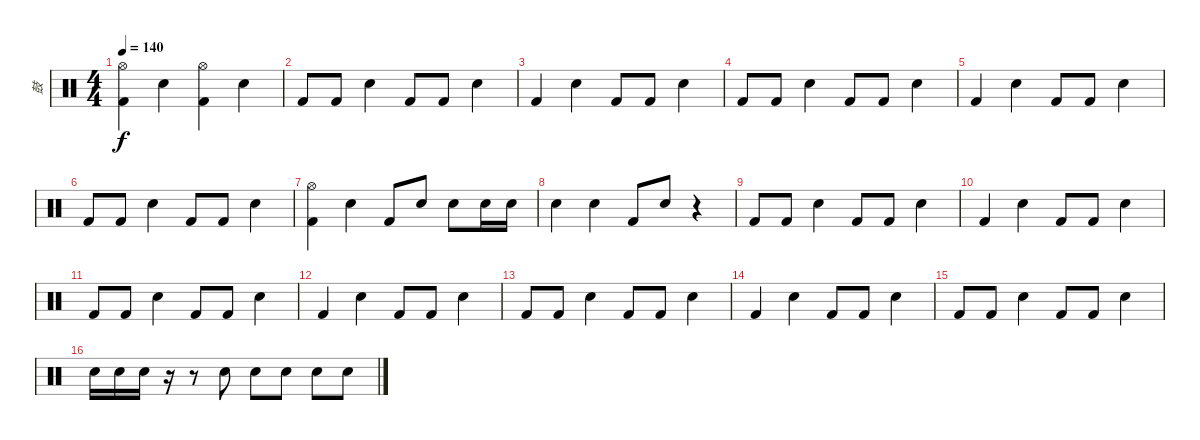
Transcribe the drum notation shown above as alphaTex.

\track ("鼓" "鼓") {instrument percussion}
\staff {score}
\articulation defaults
\ts (4 4)
\tempo 140
\clef neutral
\ks c
("Hi-Hat (open)" "Kick (hit) 2").4{dy f} "Electric Snare (hit)".4 ("Hi-Hat (open)" "Kick (hit) 2").4 "Electric Snare (hit)".4 |
"Kick (hit) 2".8 "Kick (hit) 2".8 "Electric Snare (hit)".4 "Kick (hit) 2".8 "Kick (hit) 2".8 "Electric Snare (hit)".4 |
"Kick (hit) 2".4 "Electric Snare (hit)".4 "Kick (hit) 2".8 "Kick (hit) 2".8 "Electric Snare (hit)".4 |
"Kick (hit) 2".8 "Kick (hit) 2".8 "Electric Snare (hit)".4 "Kick (hit) 2".8 "Kick (hit) 2".8 "Electric Snare (hit)".4 |
"Kick (hit) 2".4 "Electric Snare (hit)".4 "Kick (hit) 2".8 "Kick (hit) 2".8 "Electric Snare (hit)".4 |
"Kick (hit) 2".8 "Kick (hit) 2".8 "Electric Snare (hit)".4 "Kick (hit) 2".8 "Kick (hit) 2".8 "Electric Snare (hit)".4 |
("Hi-Hat (open)" "Kick (hit) 2").4 "Electric Snare (hit)".4 "Kick (hit) 2".8 "Electric Snare (hit)".8 "Electric Snare (hit)".8 "Electric Snare (hit)".16 "Electric Snare (hit)".16 |
"Electric Snare (hit)".4 "Electric Snare (hit)".4 "Kick (hit) 2".8 "Electric Snare (hit)".8 r.4 |
"Kick (hit) 2".8 "Kick (hit) 2".8 "Electric Snare (hit)".4 "Kick (hit) 2".8 "Kick (hit) 2".8 "Electric Snare (hit)".4 |
"Kick (hit) 2".4 "Electric Snare (hit)".4 "Kick (hit) 2".8 "Kick (hit) 2".8 "Electric Snare (hit)".4 |
"Kick (hit) 2".8 "Kick (hit) 2".8 "Electric Snare (hit)".4 "Kick (hit) 2".8 "Kick (hit) 2".8 "Electric Snare (hit)".4 |
"Kick (hit) 2".4 "Electric Snare (hit)".4 "Kick (hit) 2".8 "Kick (hit) 2".8 "Electric Snare (hit)".4 |
"Kick (hit) 2".8 "Kick (hit) 2".8 "Electric Snare (hit)".4 "Kick (hit) 2".8 "Kick (hit) 2".8 "Electric Snare (hit)".4 |
"Kick (hit) 2".4 "Electric Snare (hit)".4 "Kick (hit) 2".8 "Kick (hit) 2".8 "Electric Snare (hit)".4 |
"Kick (hit) 2".8 "Kick (hit) 2".8 "Electric Snare (hit)".4 "Kick (hit) 2".8 "Kick (hit) 2".8 "Electric Snare (hit)".4 |
"Electric Snare (hit)".16 "Electric Snare (hit)".16 "Electric Snare (hit)".16 r.16 r.8 "Electric Snare (hit)".8 "Electric Snare (hit)".8 "Electric Snare (hit)".8 "Electric Snare (hit)".8 "Electric Snare (hit)".8
